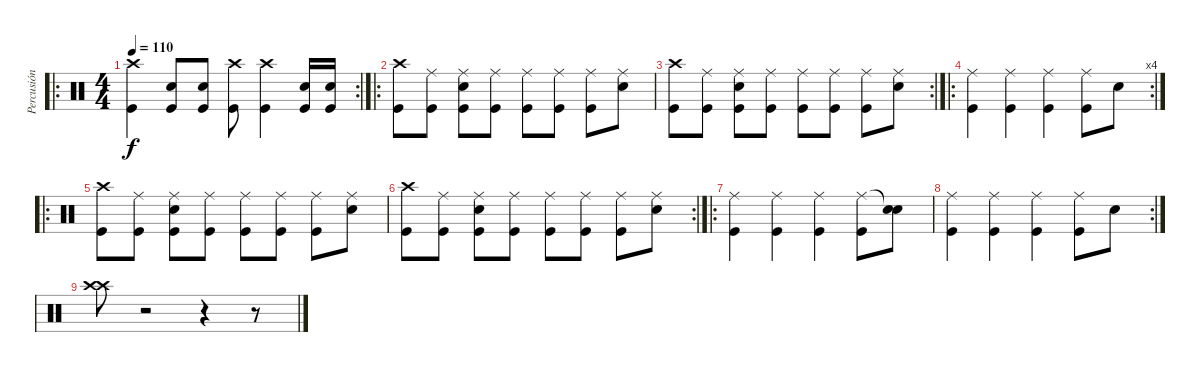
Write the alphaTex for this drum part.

\track ("Percusión" "Percusión") {instrument percussion}
\staff {score}
\articulation defaults
\ro
\rc 2
\ts (4 4)
\tempo 110
\clef neutral
\ks c
("Crash high (hit)" "Kick (hit)").4{dy f} ("Electric Snare (hit)" "Kick (hit)").8 ("Electric Snare (hit)" "Kick (hit)").8 ("Crash high (hit)" "Kick (hit)").8 ("Crash high (hit)" "Kick (hit)").4 ("Electric Snare (hit)" "Kick (hit)").16 ("Electric Snare (hit)" "Kick (hit)").16 |
\ro
("Crash high (hit)" "Kick (hit)").8 ("Ride (middle)" "Kick (hit)").8 ("Ride (middle)" "Electric Snare (hit)" "Kick (hit)").8 ("Ride (middle)" "Kick (hit)").8 ("Ride (middle)" "Kick (hit)").8 ("Ride (middle)" "Kick (hit)").8 ("Ride (middle)" "Kick (hit)").8 ("Ride (middle)" "Electric Snare (hit)").8 |
\rc 2
("Crash high (hit)" "Kick (hit)").8 ("Ride (middle)" "Kick (hit)").8 ("Ride (middle)" "Electric Snare (hit)" "Kick (hit)").8 ("Ride (middle)" "Kick (hit)").8 ("Ride (middle)" "Kick (hit)").8 ("Ride (middle)" "Kick (hit)").8 ("Ride (middle)" "Kick (hit)").8 ("Ride (middle)" "Electric Snare (hit)").8 |
\ro
\rc 4
("Ride (middle)" "Kick (hit)").4 ("Ride (middle)" "Kick (hit)").4 ("Ride (middle)" "Kick (hit)").4 ("Ride (middle)" "Kick (hit)").8 "Electric Snare (hit)".8 |
\ro
("Crash high (hit)" "Kick (hit)").8 ("Ride (middle)" "Kick (hit)").8 ("Ride (middle)" "Electric Snare (hit)" "Kick (hit)").8 ("Ride (middle)" "Kick (hit)").8 ("Ride (middle)" "Kick (hit)").8 ("Ride (middle)" "Kick (hit)").8 ("Ride (middle)" "Kick (hit)").8 ("Ride (middle)" "Electric Snare (hit)").8 |
\rc 2
("Crash high (hit)" "Kick (hit)").8 ("Ride (middle)" "Kick (hit)").8 ("Ride (middle)" "Electric Snare (hit)" "Kick (hit)").8 ("Ride (middle)" "Kick (hit)").8 ("Ride (middle)" "Kick (hit)").8 ("Ride (middle)" "Kick (hit)").8 ("Ride (middle)" "Kick (hit)").8 ("Ride (middle)" "Electric Snare (hit)").8 |
\ro
("Ride (middle)" "Kick (hit)").4 ("Ride (middle)" "Kick (hit)").4 ("Ride (middle)" "Kick (hit)").4 ("Ride (middle)" "Kick (hit)").8 ("Snare (hit)"{t} "Electric Snare (hit)").8 |
\rc 2
("Ride (middle)" "Kick (hit)").4 ("Ride (middle)" "Kick (hit)").4 ("Ride (middle)" "Kick (hit)").4 ("Ride (middle)" "Kick (hit)").8 "Electric Snare (hit)".8 |
("Crash high (hit)" "Crash high (hit)").8 r.2 r.4 r.8
